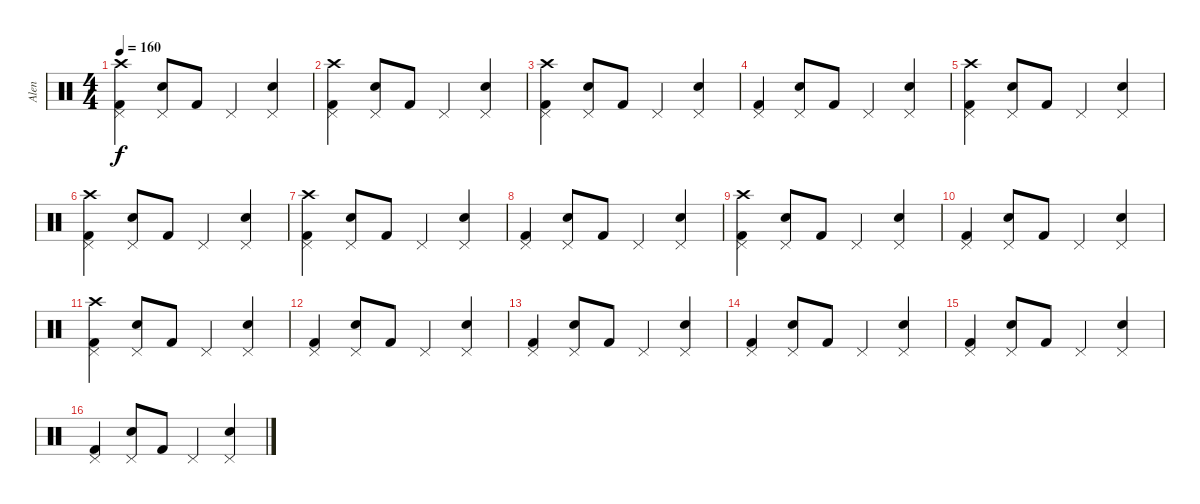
\track ("Alen" "Alen") {instrument percussion}
\staff {score}
\articulation defaults
\ts (4 4)
\tempo 160
\clef neutral
\ks c
("Crash high (hit)" "Pedal Hi-Hat (hit)" "Kick (hit) 2").4{dy f} ("Pedal Hi-Hat (hit)" "Snare (hit) 2").8 "Kick (hit) 2".8 "Pedal Hi-Hat (hit)".4 ("Pedal Hi-Hat (hit)" "Snare (hit) 2").4 |
("Crash high (hit)" "Pedal Hi-Hat (hit)" "Kick (hit) 2").4 ("Pedal Hi-Hat (hit)" "Snare (hit) 2").8 "Kick (hit) 2".8 "Pedal Hi-Hat (hit)".4 ("Pedal Hi-Hat (hit)" "Snare (hit) 2").4 |
("Crash high (hit)" "Pedal Hi-Hat (hit)" "Kick (hit) 2").4 ("Pedal Hi-Hat (hit)" "Snare (hit) 2").8 "Kick (hit) 2".8 "Pedal Hi-Hat (hit)".4 ("Pedal Hi-Hat (hit)" "Snare (hit) 2").4 |
("Pedal Hi-Hat (hit)" "Kick (hit) 2").4 ("Pedal Hi-Hat (hit)" "Snare (hit) 2").8 "Kick (hit) 2".8 "Pedal Hi-Hat (hit)".4 ("Pedal Hi-Hat (hit)" "Snare (hit) 2").4 |
("Crash high (hit)" "Pedal Hi-Hat (hit)" "Kick (hit) 2").4 ("Pedal Hi-Hat (hit)" "Snare (hit) 2").8 "Kick (hit) 2".8 "Pedal Hi-Hat (hit)".4 ("Pedal Hi-Hat (hit)" "Snare (hit) 2").4 |
("Crash high (hit)" "Pedal Hi-Hat (hit)" "Kick (hit) 2").4 ("Pedal Hi-Hat (hit)" "Snare (hit) 2").8 "Kick (hit) 2".8 "Pedal Hi-Hat (hit)".4 ("Pedal Hi-Hat (hit)" "Snare (hit) 2").4 |
("Crash high (hit)" "Pedal Hi-Hat (hit)" "Kick (hit) 2").4 ("Pedal Hi-Hat (hit)" "Snare (hit) 2").8 "Kick (hit) 2".8 "Pedal Hi-Hat (hit)".4 ("Pedal Hi-Hat (hit)" "Snare (hit) 2").4 |
("Pedal Hi-Hat (hit)" "Kick (hit) 2").4 ("Pedal Hi-Hat (hit)" "Snare (hit) 2").8 "Kick (hit) 2".8 "Pedal Hi-Hat (hit)".4 ("Pedal Hi-Hat (hit)" "Snare (hit) 2").4 |
("Crash high (hit)" "Pedal Hi-Hat (hit)" "Kick (hit) 2").4 ("Pedal Hi-Hat (hit)" "Snare (hit) 2").8 "Kick (hit) 2".8 "Pedal Hi-Hat (hit)".4 ("Pedal Hi-Hat (hit)" "Snare (hit) 2").4 |
("Pedal Hi-Hat (hit)" "Kick (hit) 2").4 ("Pedal Hi-Hat (hit)" "Snare (hit) 2").8 "Kick (hit) 2".8 "Pedal Hi-Hat (hit)".4 ("Pedal Hi-Hat (hit)" "Snare (hit) 2").4 |
("Crash high (hit)" "Pedal Hi-Hat (hit)" "Kick (hit) 2").4 ("Pedal Hi-Hat (hit)" "Snare (hit) 2").8 "Kick (hit) 2".8 "Pedal Hi-Hat (hit)".4 ("Pedal Hi-Hat (hit)" "Snare (hit) 2").4 |
("Pedal Hi-Hat (hit)" "Kick (hit) 2").4 ("Pedal Hi-Hat (hit)" "Snare (hit) 2").8 "Kick (hit) 2".8 "Pedal Hi-Hat (hit)".4 ("Pedal Hi-Hat (hit)" "Snare (hit) 2").4 |
("Pedal Hi-Hat (hit)" "Kick (hit) 2").4 ("Pedal Hi-Hat (hit)" "Snare (hit) 2").8 "Kick (hit) 2".8 "Pedal Hi-Hat (hit)".4 ("Pedal Hi-Hat (hit)" "Snare (hit) 2").4 |
("Pedal Hi-Hat (hit)" "Kick (hit) 2").4 ("Pedal Hi-Hat (hit)" "Snare (hit) 2").8 "Kick (hit) 2".8 "Pedal Hi-Hat (hit)".4 ("Pedal Hi-Hat (hit)" "Snare (hit) 2").4 |
("Pedal Hi-Hat (hit)" "Kick (hit) 2").4 ("Pedal Hi-Hat (hit)" "Snare (hit) 2").8 "Kick (hit) 2".8 "Pedal Hi-Hat (hit)".4 ("Pedal Hi-Hat (hit)" "Snare (hit) 2").4 |
("Pedal Hi-Hat (hit)" "Kick (hit) 2").4 ("Pedal Hi-Hat (hit)" "Snare (hit) 2").8 "Kick (hit) 2".8 "Pedal Hi-Hat (hit)".4 ("Pedal Hi-Hat (hit)" "Snare (hit) 2").4
